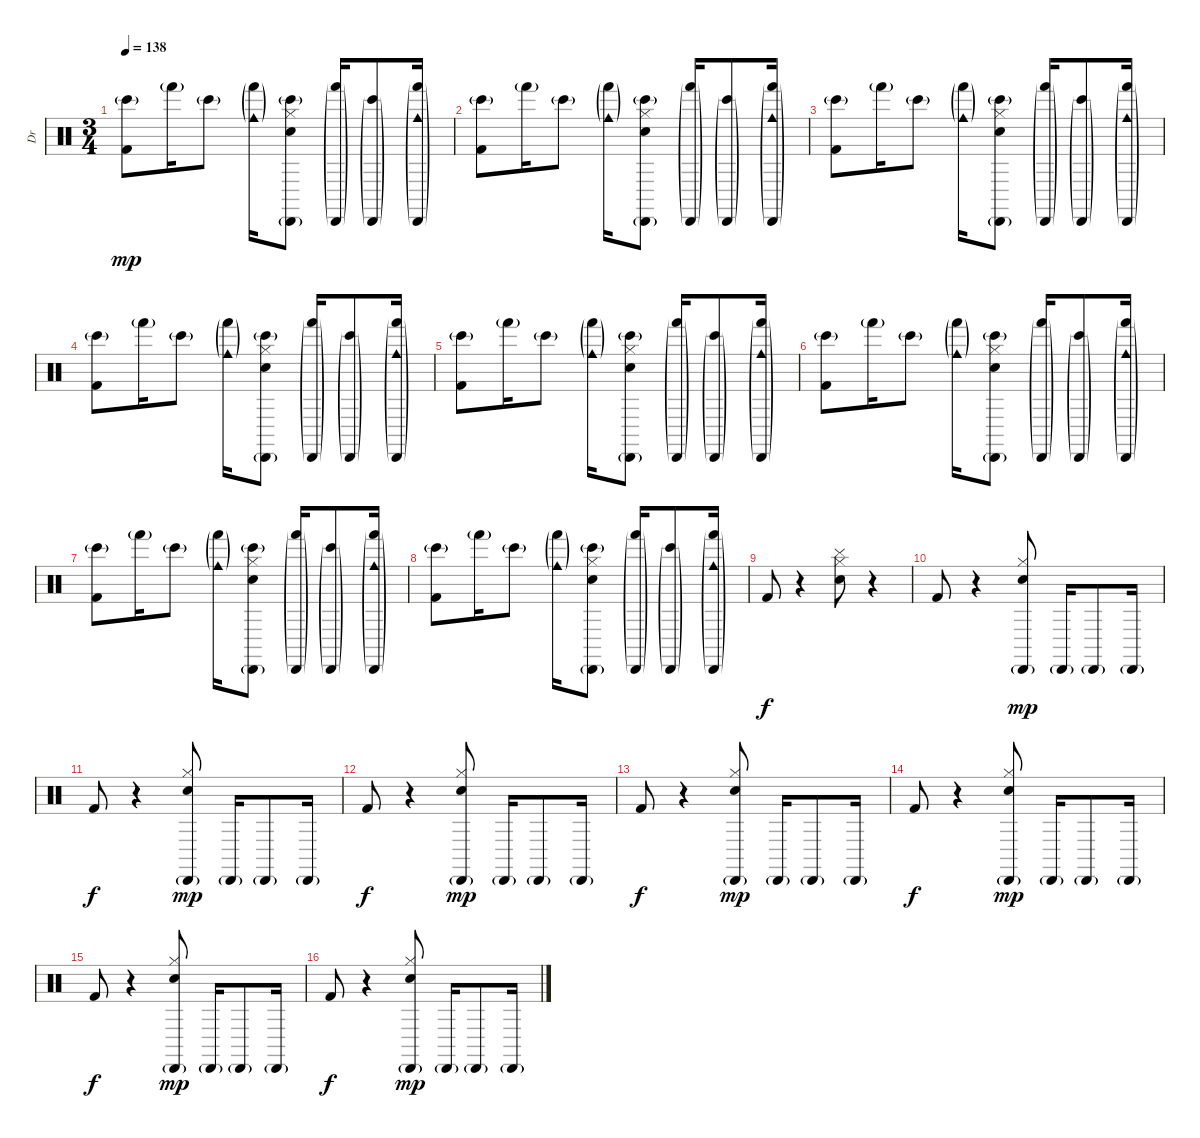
\track ("Dr" "Dr") {instrument percussion}
\staff {score}
\articulation defaults
\ts (3 4)
\tempo 138
\clef neutral
\ks c
("Bongo High (hit)"{g} "Kick (hit) 2").8{dy mp} "Hand (hit)"{g}.16 "Bongo High (hit)"{g}.8 ("Cowbell medium (hit)"{g} "Hand (hit)"{g}).16 ("Cabasa (hit)"{g} "Hi-Hat (closed)" "Electric Snare (hit)" "Bongo High (hit)"{g}).8 ("Cabasa (hit)"{g} "Hand (hit)"{g}).16 ("Cabasa (hit)"{g} "Bongo High (hit)"{g}).8 ("Cabasa (hit)"{g} "Cowbell medium (hit)"{g} "Hand (hit)"{g}).16 |
("Bongo High (hit)"{g} "Kick (hit) 2").8 "Hand (hit)"{g}.16 "Bongo High (hit)"{g}.8 ("Cowbell medium (hit)"{g} "Hand (hit)"{g}).16 ("Cabasa (hit)"{g} "Hi-Hat (closed)" "Electric Snare (hit)" "Bongo High (hit)"{g}).8 ("Cabasa (hit)"{g} "Hand (hit)"{g}).16 ("Cabasa (hit)"{g} "Bongo High (hit)"{g}).8 ("Cabasa (hit)"{g} "Cowbell medium (hit)"{g} "Hand (hit)"{g}).16 |
("Bongo High (hit)"{g} "Kick (hit) 2").8 "Hand (hit)"{g}.16 "Bongo High (hit)"{g}.8 ("Cowbell medium (hit)"{g} "Hand (hit)"{g}).16 ("Cabasa (hit)"{g} "Hi-Hat (closed)" "Electric Snare (hit)" "Bongo High (hit)"{g}).8 ("Cabasa (hit)"{g} "Hand (hit)"{g}).16 ("Cabasa (hit)"{g} "Bongo High (hit)"{g}).8 ("Cabasa (hit)"{g} "Cowbell medium (hit)"{g} "Hand (hit)"{g}).16 |
("Bongo High (hit)"{g} "Kick (hit) 2").8 "Hand (hit)"{g}.16 "Bongo High (hit)"{g}.8 ("Cowbell medium (hit)"{g} "Hand (hit)"{g}).16 ("Cabasa (hit)"{g} "Hi-Hat (closed)" "Electric Snare (hit)" "Bongo High (hit)"{g}).8 ("Cabasa (hit)"{g} "Hand (hit)"{g}).16 ("Cabasa (hit)"{g} "Bongo High (hit)"{g}).8 ("Cabasa (hit)"{g} "Cowbell medium (hit)"{g} "Hand (hit)"{g}).16 |
("Bongo High (hit)"{g} "Kick (hit) 2").8 "Hand (hit)"{g}.16 "Bongo High (hit)"{g}.8 ("Cowbell medium (hit)"{g} "Hand (hit)"{g}).16 ("Cabasa (hit)"{g} "Hi-Hat (closed)" "Electric Snare (hit)" "Bongo High (hit)"{g}).8 ("Cabasa (hit)"{g} "Hand (hit)"{g}).16 ("Cabasa (hit)"{g} "Bongo High (hit)"{g}).8 ("Cabasa (hit)"{g} "Cowbell medium (hit)"{g} "Hand (hit)"{g}).16 |
("Bongo High (hit)"{g} "Kick (hit) 2").8 "Hand (hit)"{g}.16 "Bongo High (hit)"{g}.8 ("Cowbell medium (hit)"{g} "Hand (hit)"{g}).16 ("Cabasa (hit)"{g} "Hi-Hat (closed)" "Electric Snare (hit)" "Bongo High (hit)"{g}).8 ("Cabasa (hit)"{g} "Hand (hit)"{g}).16 ("Cabasa (hit)"{g} "Bongo High (hit)"{g}).8 ("Cabasa (hit)"{g} "Cowbell medium (hit)"{g} "Hand (hit)"{g}).16 |
("Bongo High (hit)"{g} "Kick (hit) 2").8 "Hand (hit)"{g}.16 "Bongo High (hit)"{g}.8 ("Cowbell medium (hit)"{g} "Hand (hit)"{g}).16 ("Cabasa (hit)"{g} "Hi-Hat (closed)" "Electric Snare (hit)" "Bongo High (hit)"{g}).8 ("Cabasa (hit)"{g} "Hand (hit)"{g}).16 ("Cabasa (hit)"{g} "Bongo High (hit)"{g}).8 ("Cabasa (hit)"{g} "Cowbell medium (hit)"{g} "Hand (hit)"{g}).16 |
("Bongo High (hit)"{g} "Kick (hit) 2").8 "Hand (hit)"{g}.16 "Bongo High (hit)"{g}.8 ("Cowbell medium (hit)"{g} "Hand (hit)"{g}).16 ("Cabasa (hit)"{g} "Hi-Hat (closed)" "Electric Snare (hit)" "Bongo High (hit)"{g}).8 ("Cabasa (hit)"{g} "Hand (hit)"{g}).16 ("Cabasa (hit)"{g} "Bongo High (hit)"{g}).8 ("Cabasa (hit)"{g} "Cowbell medium (hit)"{g} "Hand (hit)"{g}).16 |
"Kick (hit) 2".8{dy f} r.4 ("Cymbal (hit)" "Hi-Hat (closed)" "Electric Snare (hit)").8 r.4 |
"Kick (hit) 2".8 r.4 ("Cabasa (hit)"{g} "Hi-Hat (closed)" "Electric Snare (hit)").8{dy mp} "Cabasa (hit)"{g}.16 "Cabasa (hit)"{g}.8 "Cabasa (hit)"{g}.16 |
"Kick (hit) 2".8{dy f} r.4 ("Cabasa (hit)"{g} "Hi-Hat (closed)" "Electric Snare (hit)").8{dy mp} "Cabasa (hit)"{g}.16 "Cabasa (hit)"{g}.8 "Cabasa (hit)"{g}.16 |
"Kick (hit) 2".8{dy f} r.4 ("Cabasa (hit)"{g} "Hi-Hat (closed)" "Electric Snare (hit)").8{dy mp} "Cabasa (hit)"{g}.16 "Cabasa (hit)"{g}.8 "Cabasa (hit)"{g}.16 |
"Kick (hit) 2".8{dy f} r.4 ("Cabasa (hit)"{g} "Hi-Hat (closed)" "Electric Snare (hit)").8{dy mp} "Cabasa (hit)"{g}.16 "Cabasa (hit)"{g}.8 "Cabasa (hit)"{g}.16 |
"Kick (hit) 2".8{dy f} r.4 ("Cabasa (hit)"{g} "Hi-Hat (closed)" "Electric Snare (hit)").8{dy mp} "Cabasa (hit)"{g}.16 "Cabasa (hit)"{g}.8 "Cabasa (hit)"{g}.16 |
"Kick (hit) 2".8{dy f} r.4 ("Cabasa (hit)"{g} "Hi-Hat (closed)" "Electric Snare (hit)").8{dy mp} "Cabasa (hit)"{g}.16 "Cabasa (hit)"{g}.8 "Cabasa (hit)"{g}.16 |
"Kick (hit) 2".8{dy f} r.4 ("Cabasa (hit)"{g} "Hi-Hat (closed)" "Electric Snare (hit)").8{dy mp} "Cabasa (hit)"{g}.16 "Cabasa (hit)"{g}.8 "Cabasa (hit)"{g}.16
